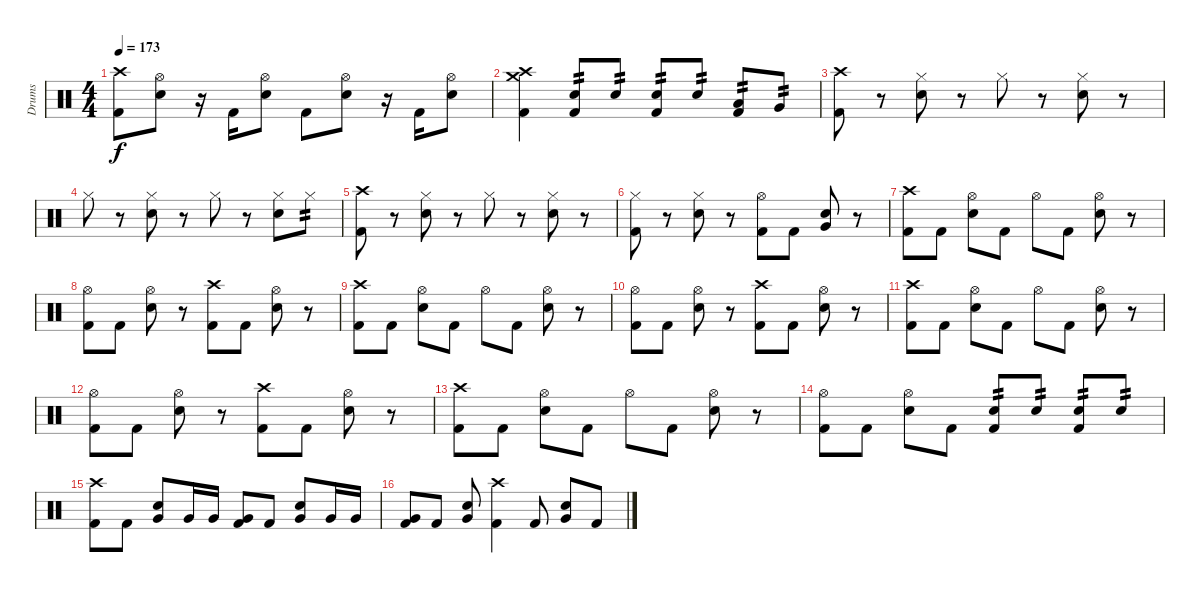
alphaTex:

\track ("Drums" "Drums") {instrument percussion}
\staff {score}
\articulation defaults
\ts (4 4)
\tempo 173
\clef neutral
\ks c
("Crash high (hit)" "Kick (hit) 2").8{dy f} ("Hi-Hat (open)" "Electric Snare (hit)").8 r.16 "Kick (hit) 2".16 ("Hi-Hat (open)" "Electric Snare (hit)").8 "Kick (hit) 2".8 ("Hi-Hat (open)" "Electric Snare (hit)").8 r.16 "Kick (hit) 2".16 ("Hi-Hat (open)" "Electric Snare (hit)").8 |
("Crash high (hit)" "Crash medium (hit)" "Kick (hit) 2").4 ("Electric Snare (hit)" "Kick (hit) 2").8{tp 2} "Electric Snare (hit)".8{tp 2} ("Electric Snare (hit)" "Kick (hit) 2").8{tp 2} "Electric Snare (hit)".8{tp 2} ("Low Tom (hit)" "Kick (hit) 2").8{tp 2} "Very Low Tom (hit)".8{tp 2} |
("Crash high (hit)" "Kick (hit) 2").8 r.8 ("Hi-Hat (closed)" "Electric Snare (hit)").8 r.8 "Hi-Hat (closed)".8 r.8 ("Hi-Hat (closed)" "Electric Snare (hit)").8 r.8 |
"Hi-Hat (closed)".8 r.8 ("Hi-Hat (closed)" "Electric Snare (hit)").8 r.8 "Hi-Hat (closed)".8 r.8 ("Hi-Hat (closed)" "Electric Snare (hit)").8 "Hi-Hat (closed)".8{tp 2} |
("Crash high (hit)" "Kick (hit) 2").8 r.8 ("Hi-Hat (closed)" "Electric Snare (hit)").8 r.8 "Hi-Hat (closed)".8 r.8 ("Hi-Hat (closed)" "Electric Snare (hit)").8 r.8 |
("Hi-Hat (closed)" "Kick (hit) 2").8 r.8 ("Hi-Hat (closed)" "Electric Snare (hit)").8 r.8 ("Hi-Hat (open)" "Kick (hit) 2").8 "Kick (hit) 2".8 ("Very Low Tom (hit)" "Electric Snare (hit)").8 r.8 |
("Crash high (hit)" "Kick (hit) 2").8 "Kick (hit) 2".8 ("Hi-Hat (open)" "Electric Snare (hit)").8 "Kick (hit) 2".8 "Hi-Hat (open)".8 "Kick (hit) 2".8 ("Hi-Hat (open)" "Electric Snare (hit)").8 r.8 |
("Hi-Hat (open)" "Kick (hit) 2").8 "Kick (hit) 2".8 ("Hi-Hat (open)" "Electric Snare (hit)").8 r.8 ("Crash high (hit)" "Kick (hit) 2").8 "Kick (hit) 2".8 ("Hi-Hat (open)" "Electric Snare (hit)").8 r.8 |
("Crash high (hit)" "Kick (hit) 2").8 "Kick (hit) 2".8 ("Hi-Hat (open)" "Electric Snare (hit)").8 "Kick (hit) 2".8 "Hi-Hat (open)".8 "Kick (hit) 2".8 ("Hi-Hat (open)" "Electric Snare (hit)").8 r.8 |
("Hi-Hat (open)" "Kick (hit) 2").8 "Kick (hit) 2".8 ("Hi-Hat (open)" "Electric Snare (hit)").8 r.8 ("Crash high (hit)" "Kick (hit) 2").8 "Kick (hit) 2".8 ("Hi-Hat (open)" "Electric Snare (hit)").8 r.8 |
("Crash high (hit)" "Kick (hit) 2").8 "Kick (hit) 2".8 ("Hi-Hat (open)" "Electric Snare (hit)").8 "Kick (hit) 2".8 "Hi-Hat (open)".8 "Kick (hit) 2".8 ("Hi-Hat (open)" "Electric Snare (hit)").8 r.8 |
("Hi-Hat (open)" "Kick (hit) 2").8 "Kick (hit) 2".8 ("Hi-Hat (open)" "Electric Snare (hit)").8 r.8 ("Crash high (hit)" "Kick (hit) 2").8 "Kick (hit) 2".8 ("Hi-Hat (open)" "Electric Snare (hit)").8 r.8 |
("Crash high (hit)" "Kick (hit) 2").8 "Kick (hit) 2".8 ("Hi-Hat (open)" "Electric Snare (hit)").8 "Kick (hit) 2".8 "Hi-Hat (open)".8 "Kick (hit) 2".8 ("Hi-Hat (open)" "Electric Snare (hit)").8 r.8 |
("Hi-Hat (open)" "Kick (hit) 2").8 "Kick (hit) 2".8 ("Hi-Hat (open)" "Electric Snare (hit)").8 "Kick (hit) 2".8 ("Electric Snare (hit)" "Kick (hit) 2").8{tp 2} "Electric Snare (hit)".8{tp 2} ("Electric Snare (hit)" "Kick (hit) 2").8{tp 2} "Electric Snare (hit)".8{tp 2} |
("Crash high (hit)" "Kick (hit) 2").8 "Kick (hit) 2".8 ("Very Low Tom (hit)" "Electric Snare (hit)").8 "Very Low Tom (hit)".16 "Very Low Tom (hit)".16 ("Very Low Tom (hit)" "Kick (hit) 2").8 "Kick (hit) 2".8 ("Very Low Tom (hit)" "Electric Snare (hit)").8 "Very Low Tom (hit)".16 "Very Low Tom (hit)".16 |
("Very Low Tom (hit)" "Kick (hit) 2").8 "Kick (hit) 2".8 ("Very Low Tom (hit)" "Electric Snare (hit)").8 ("Crash high (hit)" "Kick (hit) 2").4 "Kick (hit) 2".8 ("Very Low Tom (hit)" "Electric Snare (hit)").8 "Kick (hit) 2".8
